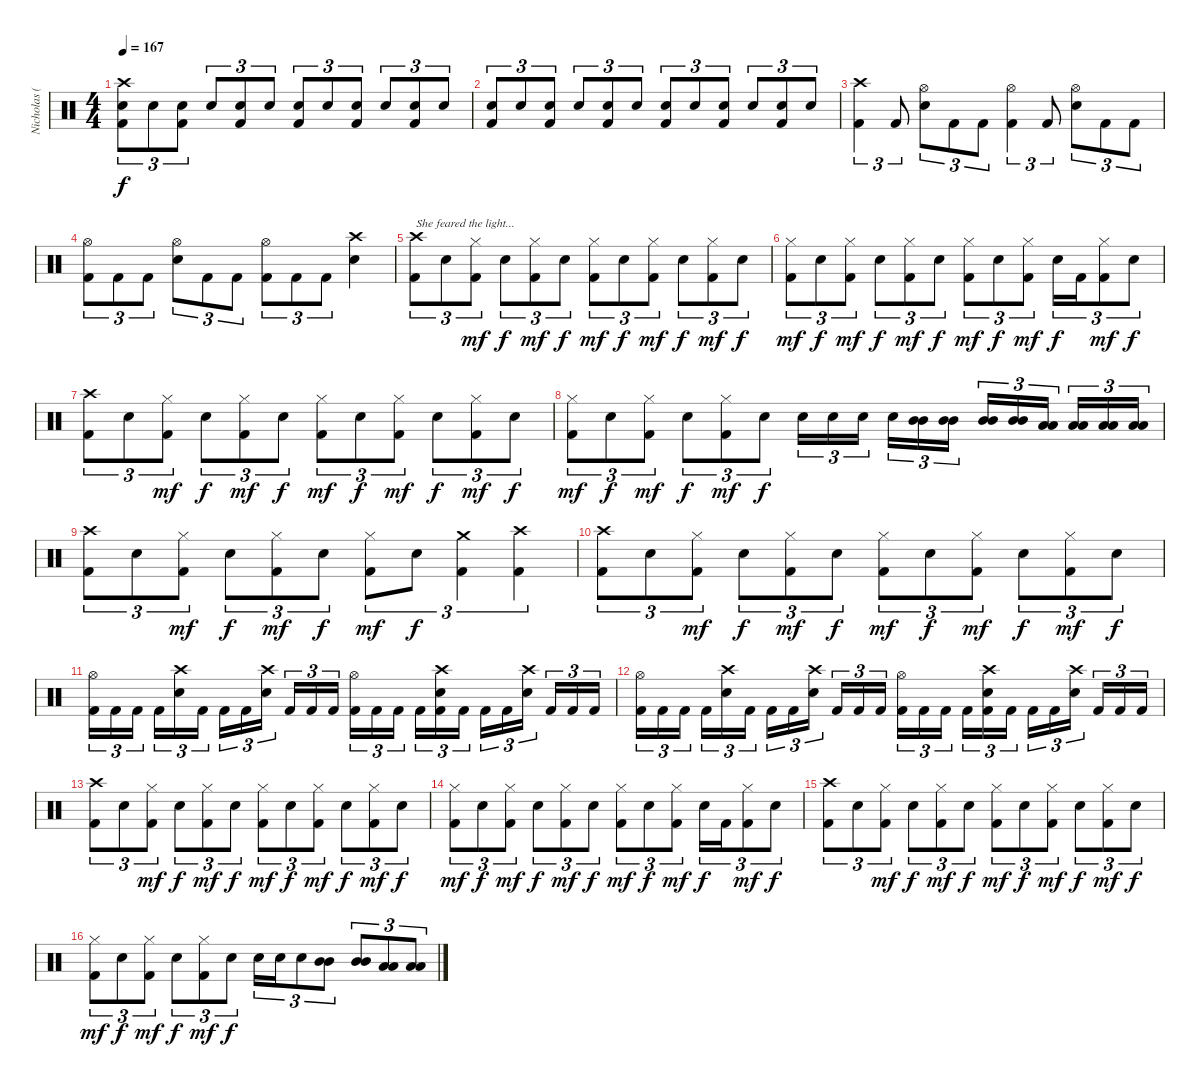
\track ("Nicholas (Drums)" "Nicholas (") {instrument percussion}
\staff {score}
\articulation defaults
\ts (4 4)
\tempo 167
\clef neutral
\ks c
("Crash high (hit)" "Electric Snare (hit)" "Kick (hit) 2").8{tu (3 2) dy f} "Electric Snare (hit)".8{tu (3 2)} ("Electric Snare (hit)" "Kick (hit) 2").8{tu (3 2)} "Electric Snare (hit)".8{tu (3 2)} ("Electric Snare (hit)" "Kick (hit) 2").8{tu (3 2)} "Electric Snare (hit)".8{tu (3 2)} ("Electric Snare (hit)" "Kick (hit) 2").8{tu (3 2)} "Electric Snare (hit)".8{tu (3 2)} ("Electric Snare (hit)" "Kick (hit) 2").8{tu (3 2)} "Electric Snare (hit)".8{tu (3 2)} ("Electric Snare (hit)" "Kick (hit) 2").8{tu (3 2)} "Electric Snare (hit)".8{tu (3 2)} |
("Electric Snare (hit)" "Kick (hit) 2").8{tu (3 2)} "Electric Snare (hit)".8{tu (3 2)} ("Electric Snare (hit)" "Kick (hit) 2").8{tu (3 2)} "Electric Snare (hit)".8{tu (3 2)} ("Electric Snare (hit)" "Kick (hit) 2").8{tu (3 2)} "Electric Snare (hit)".8{tu (3 2)} ("Electric Snare (hit)" "Kick (hit) 2").8{tu (3 2)} "Electric Snare (hit)".8{tu (3 2)} ("Electric Snare (hit)" "Kick (hit) 2").8{tu (3 2)} "Electric Snare (hit)".8{tu (3 2)} ("Electric Snare (hit)" "Kick (hit) 2").8{tu (3 2)} "Electric Snare (hit)".8{tu (3 2)} |
("Crash high (hit)" "Kick (hit) 2").4{tu (3 2)} "Kick (hit) 2".8{tu (3 2)} ("Hi-Hat (open)" "Electric Snare (hit)").8{tu (3 2)} "Kick (hit) 2".8{tu (3 2)} "Kick (hit) 2".8{tu (3 2)} ("Hi-Hat (open)" "Kick (hit) 2").4{tu (3 2)} "Kick (hit) 2".8{tu (3 2)} ("Hi-Hat (open)" "Electric Snare (hit)").8{tu (3 2)} "Kick (hit) 2".8{tu (3 2)} "Kick (hit) 2".8{tu (3 2)} |
("Hi-Hat (open)" "Kick (hit) 2").8{tu (3 2)} "Kick (hit) 2".8{tu (3 2)} "Kick (hit) 2".8{tu (3 2)} ("Hi-Hat (open)" "Electric Snare (hit)").8{tu (3 2)} "Kick (hit) 2".8{tu (3 2)} "Kick (hit) 2".8{tu (3 2)} ("Hi-Hat (open)" "Kick (hit) 2").8{tu (3 2)} "Kick (hit) 2".8{tu (3 2)} "Kick (hit) 2".8{tu (3 2)} ("Crash high (hit)" "Electric Snare (hit)").4 |
("Crash high (hit)" "Kick (hit) 2").8{tu (3 2) txt "She feared the light..."} "Electric Snare (hit)".8{tu (3 2)} ("Hi-Hat (closed)" "Kick (hit) 2").8{tu (3 2) dy mf} "Electric Snare (hit)".8{tu (3 2) dy f} ("Hi-Hat (closed)" "Kick (hit) 2").8{tu (3 2) dy mf} "Electric Snare (hit)".8{tu (3 2) dy f} ("Hi-Hat (closed)" "Kick (hit) 2").8{tu (3 2) dy mf} "Electric Snare (hit)".8{tu (3 2) dy f} ("Hi-Hat (closed)" "Kick (hit) 2").8{tu (3 2) dy mf} "Electric Snare (hit)".8{tu (3 2) dy f} ("Hi-Hat (closed)" "Kick (hit) 2").8{tu (3 2) dy mf} "Electric Snare (hit)".8{tu (3 2) dy f} |
("Hi-Hat (closed)" "Kick (hit) 2").8{tu (3 2) dy mf} "Electric Snare (hit)".8{tu (3 2) dy f} ("Hi-Hat (closed)" "Kick (hit) 2").8{tu (3 2) dy mf} "Electric Snare (hit)".8{tu (3 2) dy f} ("Hi-Hat (closed)" "Kick (hit) 2").8{tu (3 2) dy mf} "Electric Snare (hit)".8{tu (3 2) dy f} ("Hi-Hat (closed)" "Kick (hit) 2").8{tu (3 2) dy mf} "Electric Snare (hit)".8{tu (3 2) dy f} ("Hi-Hat (closed)" "Kick (hit) 2").8{tu (3 2) dy mf} "Electric Snare (hit)".16{tu (3 2) dy f} "Kick (hit) 2".16{tu (3 2)} ("Hi-Hat (closed)" "Kick (hit) 2").8{tu (3 2) dy mf} "Electric Snare (hit)".8{tu (3 2) dy f} |
("Crash high (hit)" "Kick (hit) 2").8{tu (3 2)} "Electric Snare (hit)".8{tu (3 2)} ("Hi-Hat (closed)" "Kick (hit) 2").8{tu (3 2) dy mf} "Electric Snare (hit)".8{tu (3 2) dy f} ("Hi-Hat (closed)" "Kick (hit) 2").8{tu (3 2) dy mf} "Electric Snare (hit)".8{tu (3 2) dy f} ("Hi-Hat (closed)" "Kick (hit) 2").8{tu (3 2) dy mf} "Electric Snare (hit)".8{tu (3 2) dy f} ("Hi-Hat (closed)" "Kick (hit) 2").8{tu (3 2) dy mf} "Electric Snare (hit)".8{tu (3 2) dy f} ("Hi-Hat (closed)" "Kick (hit) 2").8{tu (3 2) dy mf} "Electric Snare (hit)".8{tu (3 2) dy f} |
("Hi-Hat (closed)" "Kick (hit) 2").8{tu (3 2) dy mf} "Electric Snare (hit)".8{tu (3 2) dy f} ("Hi-Hat (closed)" "Kick (hit) 2").8{tu (3 2) dy mf} "Electric Snare (hit)".8{tu (3 2) dy f} ("Hi-Hat (closed)" "Kick (hit) 2").8{tu (3 2) dy mf} "Electric Snare (hit)".8{tu (3 2) dy f} "Electric Snare (hit)".16{tu (3 2)} "Electric Snare (hit)".16{tu (3 2)} "Electric Snare (hit)".16{tu (3 2)} "Electric Snare (hit)".16{tu (3 2)} ("Mid Tom (hit)" "Mid Tom (hit)").16{tu (3 2)} ("Mid Tom (hit)" "Mid Tom (hit)").16{tu (3 2)} ("Mid Tom (hit)" "Mid Tom (hit)").16{tu (3 2)} ("Mid Tom (hit)" "Mid Tom (hit)").16{tu (3 2)} ("Low Tom (hit)" "Low Tom (hit)").16{tu (3 2)} ("Low Tom (hit)" "Low Tom (hit)").16{tu (3 2)} ("Low Tom (hit)" "Low Tom (hit)").16{tu (3 2)} ("Low Tom (hit)" "Low Tom (hit)").16{tu (3 2)} |
("Crash high (hit)" "Kick (hit) 2").8{tu (3 2)} "Electric Snare (hit)".8{tu (3 2)} ("Hi-Hat (closed)" "Kick (hit) 2").8{tu (3 2) dy mf} "Electric Snare (hit)".8{tu (3 2) dy f} ("Hi-Hat (closed)" "Kick (hit) 2").8{tu (3 2) dy mf} "Electric Snare (hit)".8{tu (3 2) dy f} ("Hi-Hat (closed)" "Kick (hit) 2").8{tu (3 2) dy mf} "Electric Snare (hit)".8{tu (3 2) dy f} ("Crash medium (hit)" "Kick (hit) 2").4{tu (3 2)} ("Crash high (hit)" "Kick (hit) 2").4{tu (3 2)} |
("Crash high (hit)" "Kick (hit) 2").8{tu (3 2)} "Electric Snare (hit)".8{tu (3 2)} ("Hi-Hat (closed)" "Kick (hit) 2").8{tu (3 2) dy mf} "Electric Snare (hit)".8{tu (3 2) dy f} ("Hi-Hat (closed)" "Kick (hit) 2").8{tu (3 2) dy mf} "Electric Snare (hit)".8{tu (3 2) dy f} ("Hi-Hat (closed)" "Kick (hit) 2").8{tu (3 2) dy mf} "Electric Snare (hit)".8{tu (3 2) dy f} ("Hi-Hat (closed)" "Kick (hit) 2").8{tu (3 2) dy mf} "Electric Snare (hit)".8{tu (3 2) dy f} ("Hi-Hat (closed)" "Kick (hit) 2").8{tu (3 2) dy mf} "Electric Snare (hit)".8{tu (3 2) dy f} |
("Hi-Hat (open)" "Kick (hit) 2").16{tu (3 2)} "Kick (hit) 2".16{tu (3 2)} "Kick (hit) 2".16{tu (3 2)} "Kick (hit) 2".16{tu (3 2)} ("Crash high (hit)" "Electric Snare (hit)").16{tu (3 2)} "Kick (hit) 2".16{tu (3 2)} "Kick (hit) 2".16{tu (3 2)} "Kick (hit) 2".16{tu (3 2)} ("Crash high (hit)" "Electric Snare (hit)").16{tu (3 2)} "Kick (hit) 2".16{tu (3 2)} "Kick (hit) 2".16{tu (3 2)} "Kick (hit) 2".16{tu (3 2)} ("Hi-Hat (open)" "Kick (hit) 2").16{tu (3 2)} "Kick (hit) 2".16{tu (3 2)} "Kick (hit) 2".16{tu (3 2)} "Kick (hit) 2".16{tu (3 2)} ("Crash high (hit)" "Electric Snare (hit)" "Kick (hit) 2").16{tu (3 2)} "Kick (hit) 2".16{tu (3 2)} "Kick (hit) 2".16{tu (3 2)} "Kick (hit) 2".16{tu (3 2)} ("Crash high (hit)" "Electric Snare (hit)").16{tu (3 2)} "Kick (hit) 2".16{tu (3 2)} "Kick (hit) 2".16{tu (3 2)} "Kick (hit) 2".16{tu (3 2)} |
("Hi-Hat (open)" "Kick (hit) 2").16{tu (3 2)} "Kick (hit) 2".16{tu (3 2)} "Kick (hit) 2".16{tu (3 2)} "Kick (hit) 2".16{tu (3 2)} ("Crash high (hit)" "Electric Snare (hit)").16{tu (3 2)} "Kick (hit) 2".16{tu (3 2)} "Kick (hit) 2".16{tu (3 2)} "Kick (hit) 2".16{tu (3 2)} ("Crash high (hit)" "Electric Snare (hit)").16{tu (3 2)} "Kick (hit) 2".16{tu (3 2)} "Kick (hit) 2".16{tu (3 2)} "Kick (hit) 2".16{tu (3 2)} ("Hi-Hat (open)" "Kick (hit) 2").16{tu (3 2)} "Kick (hit) 2".16{tu (3 2)} "Kick (hit) 2".16{tu (3 2)} "Kick (hit) 2".16{tu (3 2)} ("Crash high (hit)" "Electric Snare (hit)" "Kick (hit) 2").16{tu (3 2)} "Kick (hit) 2".16{tu (3 2)} "Kick (hit) 2".16{tu (3 2)} "Kick (hit) 2".16{tu (3 2)} ("Crash high (hit)" "Electric Snare (hit)").16{tu (3 2)} "Kick (hit) 2".16{tu (3 2)} "Kick (hit) 2".16{tu (3 2)} "Kick (hit) 2".16{tu (3 2)} |
("Crash high (hit)" "Kick (hit) 2").8{tu (3 2)} "Electric Snare (hit)".8{tu (3 2)} ("Hi-Hat (closed)" "Kick (hit) 2").8{tu (3 2) dy mf} "Electric Snare (hit)".8{tu (3 2) dy f} ("Hi-Hat (closed)" "Kick (hit) 2").8{tu (3 2) dy mf} "Electric Snare (hit)".8{tu (3 2) dy f} ("Hi-Hat (closed)" "Kick (hit) 2").8{tu (3 2) dy mf} "Electric Snare (hit)".8{tu (3 2) dy f} ("Hi-Hat (closed)" "Kick (hit) 2").8{tu (3 2) dy mf} "Electric Snare (hit)".8{tu (3 2) dy f} ("Hi-Hat (closed)" "Kick (hit) 2").8{tu (3 2) dy mf} "Electric Snare (hit)".8{tu (3 2) dy f} |
("Hi-Hat (closed)" "Kick (hit) 2").8{tu (3 2) dy mf} "Electric Snare (hit)".8{tu (3 2) dy f} ("Hi-Hat (closed)" "Kick (hit) 2").8{tu (3 2) dy mf} "Electric Snare (hit)".8{tu (3 2) dy f} ("Hi-Hat (closed)" "Kick (hit) 2").8{tu (3 2) dy mf} "Electric Snare (hit)".8{tu (3 2) dy f} ("Hi-Hat (closed)" "Kick (hit) 2").8{tu (3 2) dy mf} "Electric Snare (hit)".8{tu (3 2) dy f} ("Hi-Hat (closed)" "Kick (hit) 2").8{tu (3 2) dy mf} "Electric Snare (hit)".16{tu (3 2) dy f} "Kick (hit) 2".16{tu (3 2)} ("Hi-Hat (closed)" "Kick (hit) 2").8{tu (3 2) dy mf} "Electric Snare (hit)".8{tu (3 2) dy f} |
("Crash high (hit)" "Kick (hit) 2").8{tu (3 2)} "Electric Snare (hit)".8{tu (3 2)} ("Hi-Hat (closed)" "Kick (hit) 2").8{tu (3 2) dy mf} "Electric Snare (hit)".8{tu (3 2) dy f} ("Hi-Hat (closed)" "Kick (hit) 2").8{tu (3 2) dy mf} "Electric Snare (hit)".8{tu (3 2) dy f} ("Hi-Hat (closed)" "Kick (hit) 2").8{tu (3 2) dy mf} "Electric Snare (hit)".8{tu (3 2) dy f} ("Hi-Hat (closed)" "Kick (hit) 2").8{tu (3 2) dy mf} "Electric Snare (hit)".8{tu (3 2) dy f} ("Hi-Hat (closed)" "Kick (hit) 2").8{tu (3 2) dy mf} "Electric Snare (hit)".8{tu (3 2) dy f} |
("Hi-Hat (closed)" "Kick (hit) 2").8{tu (3 2) dy mf} "Electric Snare (hit)".8{tu (3 2) dy f} ("Hi-Hat (closed)" "Kick (hit) 2").8{tu (3 2) dy mf} "Electric Snare (hit)".8{tu (3 2) dy f} ("Hi-Hat (closed)" "Kick (hit) 2").8{tu (3 2) dy mf} "Electric Snare (hit)".8{tu (3 2) dy f} "Electric Snare (hit)".16{tu (3 2)} "Electric Snare (hit)".16{tu (3 2)} "Electric Snare (hit)".8{tu (3 2)} ("Mid Tom (hit)" "Mid Tom (hit)").8{tu (3 2)} ("Mid Tom (hit)" "Mid Tom (hit)").8{tu (3 2)} ("Low Tom (hit)" "Low Tom (hit)").8{tu (3 2)} ("Low Tom (hit)" "Low Tom (hit)").8{tu (3 2)}
